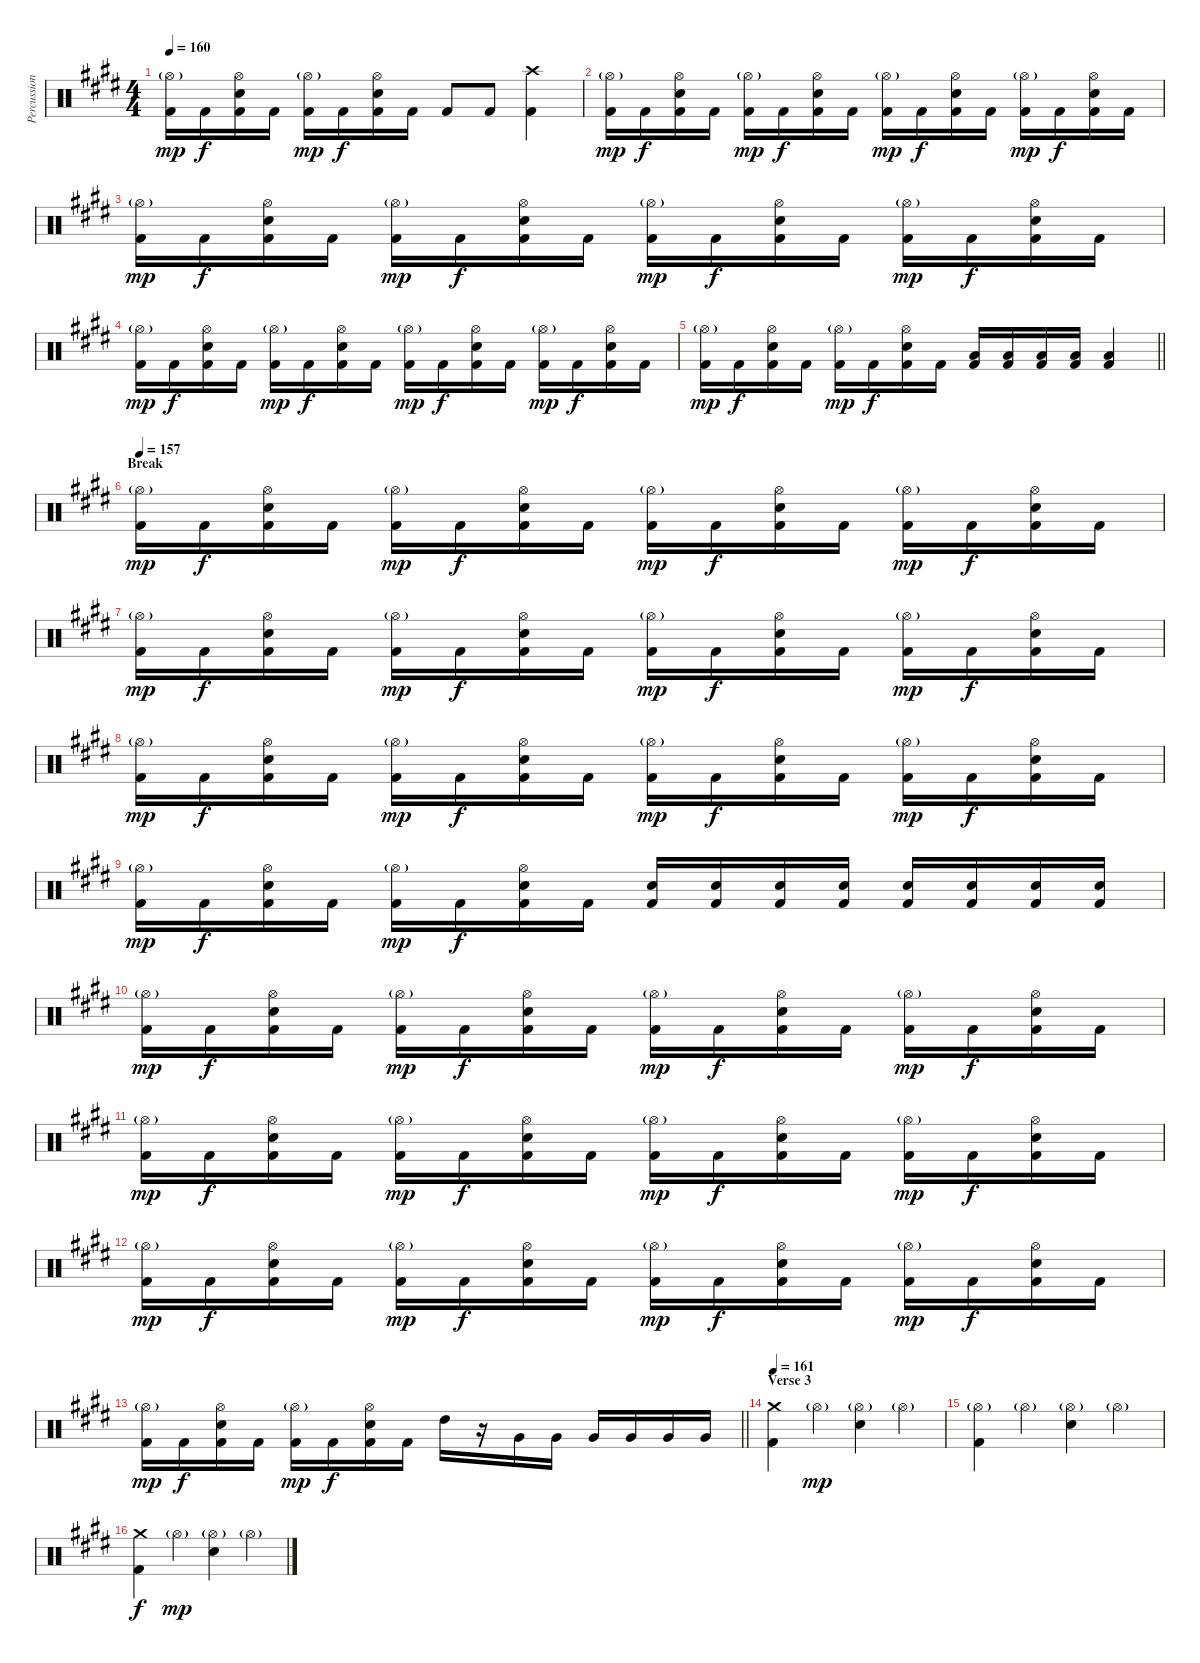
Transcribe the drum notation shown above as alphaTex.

\track ("Percussion (Thomen Stauch)" "Percussion") {instrument percussion}
\staff {score}
\articulation defaults
\ts (4 4)
\tempo 160
\clef neutral
\ks c#minor
("Hi-Hat (open)"{g} "Kick (hit) 2").16{dy mp} "Kick (hit) 2".16{dy f} ("Hi-Hat (open)" "Snare (hit) 2" "Kick (hit) 2").16 "Kick (hit) 2".16 ("Hi-Hat (open)"{g} "Kick (hit) 2").16{dy mp} "Kick (hit) 2".16{dy f} ("Hi-Hat (open)" "Snare (hit) 2" "Kick (hit) 2").16 "Kick (hit) 2".16 "Kick (hit) 2".8 "Kick (hit) 2".8 ("Crash high (hit)" "Kick (hit) 2").4 |
("Hi-Hat (open)"{g} "Kick (hit) 2").16{dy mp} "Kick (hit) 2".16{dy f} ("Hi-Hat (open)" "Snare (hit) 2" "Kick (hit) 2").16 "Kick (hit) 2".16 ("Hi-Hat (open)"{g} "Kick (hit) 2").16{dy mp} "Kick (hit) 2".16{dy f} ("Hi-Hat (open)" "Snare (hit) 2" "Kick (hit) 2").16 "Kick (hit) 2".16 ("Hi-Hat (open)"{g} "Kick (hit) 2").16{dy mp} "Kick (hit) 2".16{dy f} ("Hi-Hat (open)" "Snare (hit) 2" "Kick (hit) 2").16 "Kick (hit) 2".16 ("Hi-Hat (open)"{g} "Kick (hit) 2").16{dy mp} "Kick (hit) 2".16{dy f} ("Hi-Hat (open)" "Snare (hit) 2" "Kick (hit) 2").16 "Kick (hit) 2".16 |
("Hi-Hat (open)"{g} "Kick (hit) 2").16{dy mp} "Kick (hit) 2".16{dy f} ("Hi-Hat (open)" "Snare (hit) 2" "Kick (hit) 2").16 "Kick (hit) 2".16 ("Hi-Hat (open)"{g} "Kick (hit) 2").16{dy mp} "Kick (hit) 2".16{dy f} ("Hi-Hat (open)" "Snare (hit) 2" "Kick (hit) 2").16 "Kick (hit) 2".16 ("Hi-Hat (open)"{g} "Kick (hit) 2").16{dy mp} "Kick (hit) 2".16{dy f} ("Hi-Hat (open)" "Snare (hit) 2" "Kick (hit) 2").16 "Kick (hit) 2".16 ("Hi-Hat (open)"{g} "Kick (hit) 2").16{dy mp} "Kick (hit) 2".16{dy f} ("Hi-Hat (open)" "Snare (hit) 2" "Kick (hit) 2").16 "Kick (hit) 2".16 |
("Hi-Hat (open)"{g} "Kick (hit) 2").16{dy mp} "Kick (hit) 2".16{dy f} ("Hi-Hat (open)" "Snare (hit) 2" "Kick (hit) 2").16 "Kick (hit) 2".16 ("Hi-Hat (open)"{g} "Kick (hit) 2").16{dy mp} "Kick (hit) 2".16{dy f} ("Hi-Hat (open)" "Snare (hit) 2" "Kick (hit) 2").16 "Kick (hit) 2".16 ("Hi-Hat (open)"{g} "Kick (hit) 2").16{dy mp} "Kick (hit) 2".16{dy f} ("Hi-Hat (open)" "Snare (hit) 2" "Kick (hit) 2").16 "Kick (hit) 2".16 ("Hi-Hat (open)"{g} "Kick (hit) 2").16{dy mp} "Kick (hit) 2".16{dy f} ("Hi-Hat (open)" "Snare (hit) 2" "Kick (hit) 2").16 "Kick (hit) 2".16 |
\barLineRight lightlight
("Hi-Hat (open)"{g} "Kick (hit) 2").16{dy mp} "Kick (hit) 2".16{dy f} ("Hi-Hat (open)" "Snare (hit) 2" "Kick (hit) 2").16 "Kick (hit) 2".16 ("Hi-Hat (open)"{g} "Kick (hit) 2").16{dy mp} "Kick (hit) 2".16{dy f} ("Hi-Hat (open)" "Snare (hit) 2" "Kick (hit) 2").16 "Kick (hit) 2".16 ("Low Tom (hit)" "Kick (hit) 2").16 ("Low Tom (hit)" "Kick (hit) 2").16 ("Low Tom (hit)" "Kick (hit) 2").16 ("Low Tom (hit)" "Kick (hit) 2").16 ("Low Tom (hit)" "Kick (hit) 2").4 |
\section ("" "Break")
\tempo 157
("Hi-Hat (open)"{g} "Kick (hit) 2").16{dy mp} "Kick (hit) 2".16{dy f} ("Hi-Hat (open)" "Snare (hit) 2" "Kick (hit) 2").16 "Kick (hit) 2".16 ("Hi-Hat (open)"{g} "Kick (hit) 2").16{dy mp} "Kick (hit) 2".16{dy f} ("Hi-Hat (open)" "Snare (hit) 2" "Kick (hit) 2").16 "Kick (hit) 2".16 ("Hi-Hat (open)"{g} "Kick (hit) 2").16{dy mp} "Kick (hit) 2".16{dy f} ("Hi-Hat (open)" "Snare (hit) 2" "Kick (hit) 2").16 "Kick (hit) 2".16 ("Hi-Hat (open)"{g} "Kick (hit) 2").16{dy mp} "Kick (hit) 2".16{dy f} ("Hi-Hat (open)" "Snare (hit) 2" "Kick (hit) 2").16 "Kick (hit) 2".16 |
("Hi-Hat (open)"{g} "Kick (hit) 2").16{dy mp} "Kick (hit) 2".16{dy f} ("Hi-Hat (open)" "Snare (hit) 2" "Kick (hit) 2").16 "Kick (hit) 2".16 ("Hi-Hat (open)"{g} "Kick (hit) 2").16{dy mp} "Kick (hit) 2".16{dy f} ("Hi-Hat (open)" "Snare (hit) 2" "Kick (hit) 2").16 "Kick (hit) 2".16 ("Hi-Hat (open)"{g} "Kick (hit) 2").16{dy mp} "Kick (hit) 2".16{dy f} ("Hi-Hat (open)" "Snare (hit) 2" "Kick (hit) 2").16 "Kick (hit) 2".16 ("Hi-Hat (open)"{g} "Kick (hit) 2").16{dy mp} "Kick (hit) 2".16{dy f} ("Hi-Hat (open)" "Snare (hit) 2" "Kick (hit) 2").16 "Kick (hit) 2".16 |
("Hi-Hat (open)"{g} "Kick (hit) 2").16{dy mp} "Kick (hit) 2".16{dy f} ("Hi-Hat (open)" "Snare (hit) 2" "Kick (hit) 2").16 "Kick (hit) 2".16 ("Hi-Hat (open)"{g} "Kick (hit) 2").16{dy mp} "Kick (hit) 2".16{dy f} ("Hi-Hat (open)" "Snare (hit) 2" "Kick (hit) 2").16 "Kick (hit) 2".16 ("Hi-Hat (open)"{g} "Kick (hit) 2").16{dy mp} "Kick (hit) 2".16{dy f} ("Hi-Hat (open)" "Snare (hit) 2" "Kick (hit) 2").16 "Kick (hit) 2".16 ("Hi-Hat (open)"{g} "Kick (hit) 2").16{dy mp} "Kick (hit) 2".16{dy f} ("Hi-Hat (open)" "Snare (hit) 2" "Kick (hit) 2").16 "Kick (hit) 2".16 |
("Hi-Hat (open)"{g} "Kick (hit) 2").16{dy mp} "Kick (hit) 2".16{dy f} ("Hi-Hat (open)" "Snare (hit) 2" "Kick (hit) 2").16 "Kick (hit) 2".16 ("Hi-Hat (open)"{g} "Kick (hit) 2").16{dy mp} "Kick (hit) 2".16{dy f} ("Hi-Hat (open)" "Snare (hit) 2" "Kick (hit) 2").16 "Kick (hit) 2".16 ("Snare (hit) 2" "Kick (hit) 2").16 ("Snare (hit) 2" "Kick (hit) 2").16 ("Snare (hit) 2" "Kick (hit) 2").16 ("Snare (hit) 2" "Kick (hit) 2").16 ("Snare (hit) 2" "Kick (hit) 2").16 ("Snare (hit) 2" "Kick (hit) 2").16 ("Snare (hit) 2" "Kick (hit) 2").16 ("Snare (hit) 2" "Kick (hit) 2").16 |
("Hi-Hat (open)"{g} "Kick (hit) 2").16{dy mp} "Kick (hit) 2".16{dy f} ("Hi-Hat (open)" "Snare (hit) 2" "Kick (hit) 2").16 "Kick (hit) 2".16 ("Hi-Hat (open)"{g} "Kick (hit) 2").16{dy mp} "Kick (hit) 2".16{dy f} ("Hi-Hat (open)" "Snare (hit) 2" "Kick (hit) 2").16 "Kick (hit) 2".16 ("Hi-Hat (open)"{g} "Kick (hit) 2").16{dy mp} "Kick (hit) 2".16{dy f} ("Hi-Hat (open)" "Snare (hit) 2" "Kick (hit) 2").16 "Kick (hit) 2".16 ("Hi-Hat (open)"{g} "Kick (hit) 2").16{dy mp} "Kick (hit) 2".16{dy f} ("Hi-Hat (open)" "Snare (hit) 2" "Kick (hit) 2").16 "Kick (hit) 2".16 |
("Hi-Hat (open)"{g} "Kick (hit) 2").16{dy mp} "Kick (hit) 2".16{dy f} ("Hi-Hat (open)" "Snare (hit) 2" "Kick (hit) 2").16 "Kick (hit) 2".16 ("Hi-Hat (open)"{g} "Kick (hit) 2").16{dy mp} "Kick (hit) 2".16{dy f} ("Hi-Hat (open)" "Snare (hit) 2" "Kick (hit) 2").16 "Kick (hit) 2".16 ("Hi-Hat (open)"{g} "Kick (hit) 2").16{dy mp} "Kick (hit) 2".16{dy f} ("Hi-Hat (open)" "Snare (hit) 2" "Kick (hit) 2").16 "Kick (hit) 2".16 ("Hi-Hat (open)"{g} "Kick (hit) 2").16{dy mp} "Kick (hit) 2".16{dy f} ("Hi-Hat (open)" "Snare (hit) 2" "Kick (hit) 2").16 "Kick (hit) 2".16 |
("Hi-Hat (open)"{g} "Kick (hit) 2").16{dy mp} "Kick (hit) 2".16{dy f} ("Hi-Hat (open)" "Snare (hit) 2" "Kick (hit) 2").16 "Kick (hit) 2".16 ("Hi-Hat (open)"{g} "Kick (hit) 2").16{dy mp} "Kick (hit) 2".16{dy f} ("Hi-Hat (open)" "Snare (hit) 2" "Kick (hit) 2").16 "Kick (hit) 2".16 ("Hi-Hat (open)"{g} "Kick (hit) 2").16{dy mp} "Kick (hit) 2".16{dy f} ("Hi-Hat (open)" "Snare (hit) 2" "Kick (hit) 2").16 "Kick (hit) 2".16 ("Hi-Hat (open)"{g} "Kick (hit) 2").16{dy mp} "Kick (hit) 2".16{dy f} ("Hi-Hat (open)" "Snare (hit) 2" "Kick (hit) 2").16 "Kick (hit) 2".16 |
\barLineRight lightlight
("Hi-Hat (open)"{g} "Kick (hit) 2").16{dy mp} "Kick (hit) 2".16{dy f} ("Hi-Hat (open)" "Snare (hit) 2" "Kick (hit) 2").16 "Kick (hit) 2".16 ("Hi-Hat (open)"{g} "Kick (hit) 2").16{dy mp} "Kick (hit) 2".16{dy f} ("Hi-Hat (open)" "Snare (hit) 2" "Kick (hit) 2").16 "Kick (hit) 2".16 "High Tom (hit)".16 r.16 "Very Low Tom (hit)".16 "Very Low Tom (hit)".16 "Very Low Tom (hit)".16 "Very Low Tom (hit)".16 "Very Low Tom (hit)".16 "Very Low Tom (hit)".16 |
\section ("" "Verse 3")
\tempo 161
("Crash medium (hit)" "Kick (hit) 2").4 "Hi-Hat (open)"{g}.4{dy mp} ("Hi-Hat (open)"{g} "Snare (hit) 2").4 "Hi-Hat (open)"{g}.4 |
("Hi-Hat (open)"{g} "Kick (hit) 2").4 "Hi-Hat (open)"{g}.4 ("Hi-Hat (open)"{g} "Snare (hit) 2").4 "Hi-Hat (open)"{g}.4 |
("Crash medium (hit)" "Kick (hit) 2").4{dy f} "Hi-Hat (open)"{g}.4{dy mp} ("Hi-Hat (open)"{g} "Snare (hit) 2").4 "Hi-Hat (open)"{g}.4
